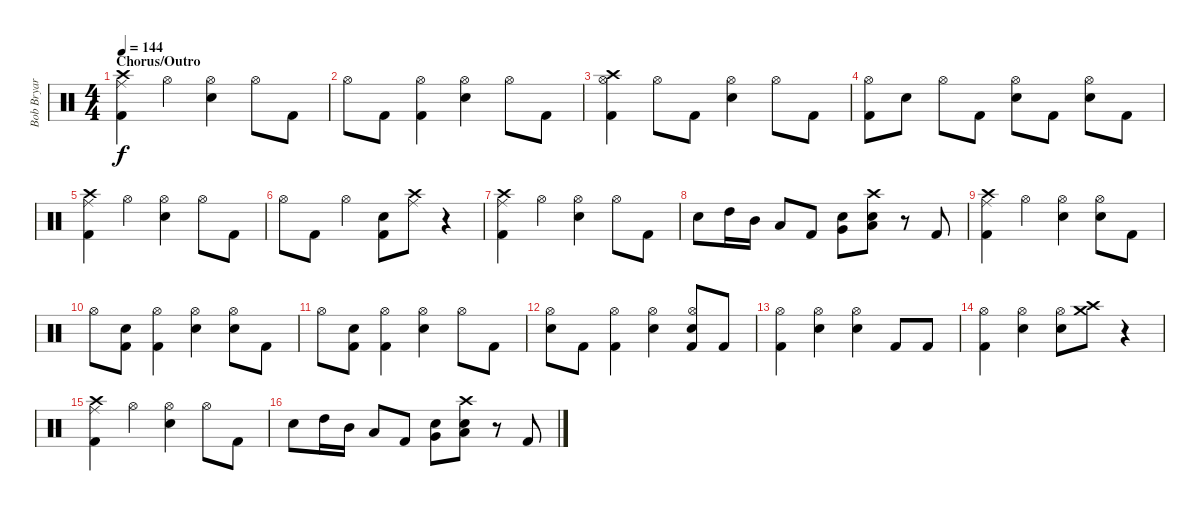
\track ("Bob Bryar" "Bob Bryar") {instrument percussion}
\staff {score}
\articulation defaults
\ts (4 4)
\section ("" "Chorus/Outro")
\tempo 144
\clef neutral
\ks c
("Crash high (hit)" "Ride (middle)" "Kick (hit) 2").4{dy f} "Hi-Hat (open)".4 ("Hi-Hat (open)" "Snare (hit) 2").4 "Hi-Hat (open)".8 "Kick (hit) 2".8 |
"Hi-Hat (open)".8 "Kick (hit) 2".8 ("Kick (hit) 2" "Hi-Hat (open)").4 ("Snare (hit) 2" "Hi-Hat (open)").4 "Hi-Hat (open)".8 "Kick (hit) 2".8 |
("Hi-Hat (open)" "Crash high (hit)" "Kick (hit) 2").4 "Hi-Hat (open)".8 "Kick (hit) 2".8 ("Hi-Hat (open)" "Snare (hit) 2").4 "Hi-Hat (open)".8 "Kick (hit) 2".8 |
("Hi-Hat (open)" "Kick (hit) 2").8 "Snare (hit) 2".8 "Hi-Hat (open)".8 "Kick (hit) 2".8 ("Snare (hit) 2" "Hi-Hat (open)").8 "Kick (hit) 2".8 ("Hi-Hat (open)" "Snare (hit) 2").8 "Kick (hit) 2".8 |
("Crash high (hit)" "Ride (middle)" "Kick (hit) 2").4 "Hi-Hat (open)".4 ("Hi-Hat (open)" "Snare (hit) 2").4 "Hi-Hat (open)".8 "Kick (hit) 2".8 |
"Hi-Hat (open)".8 "Kick (hit) 2".8 "Hi-Hat (open)".4 ("Kick (hit) 2" "Snare (hit) 2").8 ("Crash high (hit)" "Ride (middle)").8 r.4 |
("Crash high (hit)" "Ride (middle)" "Kick (hit) 2").4 "Hi-Hat (open)".4 ("Hi-Hat (open)" "Snare (hit) 2").4 "Hi-Hat (open)".8 "Kick (hit) 2".8 |
"Snare (hit) 2".8 "High Tom (hit)".16 "Mid Tom (hit)".16 "Low Tom (hit)".8 "Kick (hit) 2".8 ("Snare (hit) 2" "Very Low Tom (hit)").8 ("Snare (hit) 2" "Low Floor Tom (hit)" "Crash high (hit)").8 r.8 "Kick (hit) 2".8 |
("Crash high (hit)" "Ride (middle)" "Kick (hit) 2").4 "Hi-Hat (open)".4 ("Hi-Hat (open)" "Snare (hit) 2").4 ("Hi-Hat (open)" "Snare (hit) 2").8 "Kick (hit) 2".8 |
"Hi-Hat (open)".8 ("Kick (hit) 2" "Snare (hit) 2").8 ("Kick (hit) 2" "Hi-Hat (open)").4 ("Hi-Hat (open)" "Snare (hit) 2").4 ("Hi-Hat (open)" "Snare (hit) 2").8 "Kick (hit) 2".8 |
"Hi-Hat (open)".8 ("Kick (hit) 2" "Snare (hit) 2").8 ("Kick (hit) 2" "Hi-Hat (open)").4 ("Hi-Hat (open)" "Snare (hit) 2").4 "Hi-Hat (open)".8 "Kick (hit) 2".8 |
("Hi-Hat (open)" "Snare (hit) 2").8 "Kick (hit) 2".8 ("Kick (hit) 2" "Hi-Hat (open)").4 ("Hi-Hat (open)" "Snare (hit) 2").4 ("Hi-Hat (open)" "Snare (hit) 2" "Kick (hit) 2").8 "Kick (hit) 2".8 |
("Hi-Hat (open)" "Kick (hit) 2").4 ("Hi-Hat (open)" "Snare (hit) 2").4 ("Hi-Hat (open)" "Snare (hit) 2").4 "Kick (hit) 2".8 "Kick (hit) 2".8 |
("Hi-Hat (open)" "Kick (hit) 2").4 ("Hi-Hat (open)" "Snare (hit) 2").4 ("Hi-Hat (open)" "Snare (hit) 2").8 ("Crash high (hit)" "Crash medium (hit)").8 r.4 |
("Crash high (hit)" "Ride (middle)" "Kick (hit) 2").4 "Hi-Hat (open)".4 ("Hi-Hat (open)" "Snare (hit) 2").4 "Hi-Hat (open)".8 "Kick (hit) 2".8 |
"Snare (hit) 2".8 "High Tom (hit)".16 "Mid Tom (hit)".16 "Low Tom (hit)".8 "Kick (hit) 2".8 ("Snare (hit) 2" "Very Low Tom (hit)").8 ("Snare (hit) 2" "Low Floor Tom (hit)" "Crash high (hit)").8 r.8 "Kick (hit) 2".8
